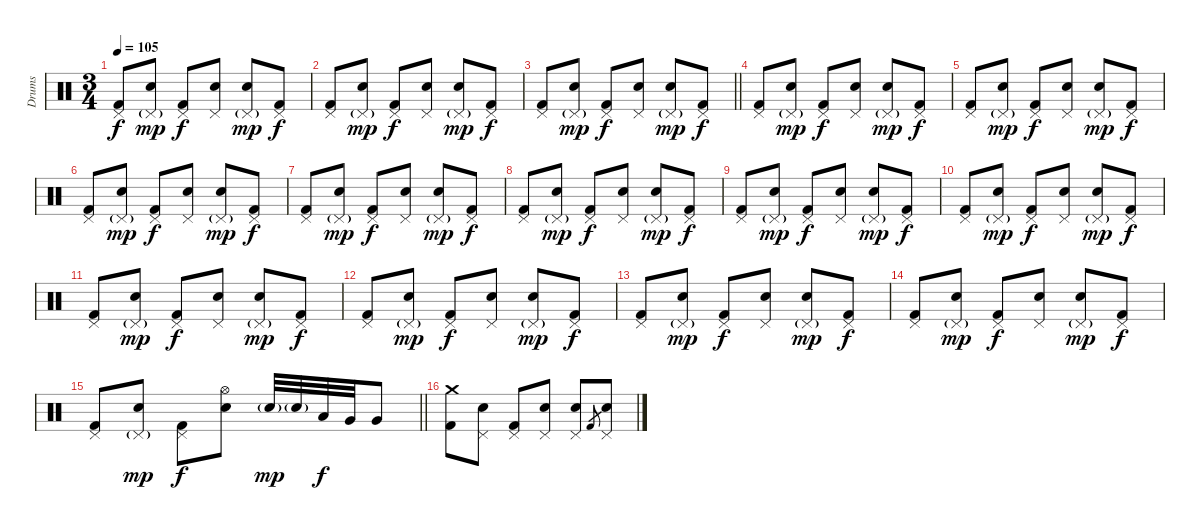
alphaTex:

\track ("Drums" "Drums") {instrument percussion}
\staff {score}
\articulation defaults
\ts (3 4)
\tempo 105
\clef neutral
\ks c
("Pedal Hi-Hat (hit)" "Kick (hit) 2").8{dy f} ("Pedal Hi-Hat (hit)"{g} "Snare (hit)").8{dy mp} ("Pedal Hi-Hat (hit)" "Kick (hit) 2").8{dy f} ("Pedal Hi-Hat (hit)" "Electric Snare (hit)").8 ("Pedal Hi-Hat (hit)"{g} "Snare (hit)").8{dy mp} ("Pedal Hi-Hat (hit)" "Kick (hit) 2").8{dy f} |
("Pedal Hi-Hat (hit)" "Kick (hit) 2").8 ("Pedal Hi-Hat (hit)"{g} "Snare (hit)").8{dy mp} ("Pedal Hi-Hat (hit)" "Kick (hit) 2").8{dy f} ("Pedal Hi-Hat (hit)" "Electric Snare (hit)").8 ("Pedal Hi-Hat (hit)"{g} "Snare (hit)").8{dy mp} ("Pedal Hi-Hat (hit)" "Kick (hit) 2").8{dy f} |
\barLineRight lightlight
("Pedal Hi-Hat (hit)" "Kick (hit) 2").8 ("Pedal Hi-Hat (hit)"{g} "Snare (hit)").8{dy mp} ("Pedal Hi-Hat (hit)" "Kick (hit) 2").8{dy f} ("Pedal Hi-Hat (hit)" "Electric Snare (hit)").8 ("Pedal Hi-Hat (hit)"{g} "Snare (hit)").8{dy mp} ("Pedal Hi-Hat (hit)" "Kick (hit) 2").8{dy f} |
("Pedal Hi-Hat (hit)" "Kick (hit) 2").8 ("Pedal Hi-Hat (hit)"{g} "Snare (hit)").8{dy mp} ("Pedal Hi-Hat (hit)" "Kick (hit) 2").8{dy f} ("Pedal Hi-Hat (hit)" "Electric Snare (hit)").8 ("Pedal Hi-Hat (hit)"{g} "Snare (hit)").8{dy mp} ("Pedal Hi-Hat (hit)" "Kick (hit) 2").8{dy f} |
("Pedal Hi-Hat (hit)" "Kick (hit) 2").8 ("Pedal Hi-Hat (hit)"{g} "Snare (hit)").8{dy mp} ("Pedal Hi-Hat (hit)" "Kick (hit) 2").8{dy f} ("Pedal Hi-Hat (hit)" "Electric Snare (hit)").8 ("Pedal Hi-Hat (hit)"{g} "Snare (hit)").8{dy mp} ("Pedal Hi-Hat (hit)" "Kick (hit) 2").8{dy f} |
("Pedal Hi-Hat (hit)" "Kick (hit) 2").8 ("Pedal Hi-Hat (hit)"{g} "Snare (hit)").8{dy mp} ("Pedal Hi-Hat (hit)" "Kick (hit) 2").8{dy f} ("Pedal Hi-Hat (hit)" "Electric Snare (hit)").8 ("Pedal Hi-Hat (hit)"{g} "Snare (hit)").8{dy mp} ("Pedal Hi-Hat (hit)" "Kick (hit) 2").8{dy f} |
("Pedal Hi-Hat (hit)" "Kick (hit) 2").8 ("Pedal Hi-Hat (hit)"{g} "Snare (hit)").8{dy mp} ("Pedal Hi-Hat (hit)" "Kick (hit) 2").8{dy f} ("Pedal Hi-Hat (hit)" "Electric Snare (hit)").8 ("Pedal Hi-Hat (hit)"{g} "Snare (hit)").8{dy mp} ("Pedal Hi-Hat (hit)" "Kick (hit) 2").8{dy f} |
("Pedal Hi-Hat (hit)" "Kick (hit) 2").8 ("Pedal Hi-Hat (hit)"{g} "Snare (hit)").8{dy mp} ("Pedal Hi-Hat (hit)" "Kick (hit) 2").8{dy f} ("Pedal Hi-Hat (hit)" "Electric Snare (hit)").8 ("Pedal Hi-Hat (hit)"{g} "Snare (hit)").8{dy mp} ("Pedal Hi-Hat (hit)" "Kick (hit) 2").8{dy f} |
("Pedal Hi-Hat (hit)" "Kick (hit) 2").8 ("Pedal Hi-Hat (hit)"{g} "Snare (hit)").8{dy mp} ("Pedal Hi-Hat (hit)" "Kick (hit) 2").8{dy f} ("Pedal Hi-Hat (hit)" "Electric Snare (hit)").8 ("Pedal Hi-Hat (hit)"{g} "Snare (hit)").8{dy mp} ("Pedal Hi-Hat (hit)" "Kick (hit) 2").8{dy f} |
("Pedal Hi-Hat (hit)" "Kick (hit) 2").8 ("Pedal Hi-Hat (hit)"{g} "Snare (hit)").8{dy mp} ("Pedal Hi-Hat (hit)" "Kick (hit) 2").8{dy f} ("Pedal Hi-Hat (hit)" "Electric Snare (hit)").8 ("Pedal Hi-Hat (hit)"{g} "Snare (hit)").8{dy mp} ("Pedal Hi-Hat (hit)" "Kick (hit) 2").8{dy f} |
("Pedal Hi-Hat (hit)" "Kick (hit) 2").8 ("Pedal Hi-Hat (hit)"{g} "Snare (hit)").8{dy mp} ("Pedal Hi-Hat (hit)" "Kick (hit) 2").8{dy f} ("Pedal Hi-Hat (hit)" "Electric Snare (hit)").8 ("Pedal Hi-Hat (hit)"{g} "Snare (hit)").8{dy mp} ("Pedal Hi-Hat (hit)" "Kick (hit) 2").8{dy f} |
("Pedal Hi-Hat (hit)" "Kick (hit) 2").8 ("Pedal Hi-Hat (hit)"{g} "Snare (hit)").8{dy mp} ("Pedal Hi-Hat (hit)" "Kick (hit) 2").8{dy f} ("Pedal Hi-Hat (hit)" "Electric Snare (hit)").8 ("Pedal Hi-Hat (hit)"{g} "Snare (hit)").8{dy mp} ("Pedal Hi-Hat (hit)" "Kick (hit) 2").8{dy f} |
("Pedal Hi-Hat (hit)" "Kick (hit) 2").8 ("Pedal Hi-Hat (hit)"{g} "Snare (hit)").8{dy mp} ("Pedal Hi-Hat (hit)" "Kick (hit) 2").8{dy f} ("Pedal Hi-Hat (hit)" "Electric Snare (hit)").8 ("Pedal Hi-Hat (hit)"{g} "Snare (hit)").8{dy mp} ("Pedal Hi-Hat (hit)" "Kick (hit) 2").8{dy f} |
("Pedal Hi-Hat (hit)" "Kick (hit) 2").8 ("Pedal Hi-Hat (hit)"{g} "Snare (hit)").8{dy mp} ("Pedal Hi-Hat (hit)" "Kick (hit) 2").8{dy f} ("Pedal Hi-Hat (hit)" "Electric Snare (hit)").8 ("Pedal Hi-Hat (hit)"{g} "Snare (hit)").8{dy mp} ("Pedal Hi-Hat (hit)" "Kick (hit) 2").8{dy f} |
\barLineRight lightlight
("Pedal Hi-Hat (hit)" "Kick (hit) 2").8 ("Pedal Hi-Hat (hit)"{g} "Snare (hit)").8{dy mp} ("Pedal Hi-Hat (hit)" "Kick (hit) 2").8{dy f} ("Hi-Hat (open)" "Electric Snare (hit)").8 "Electric Snare (hit)"{g}.32{dy mp} "Electric Snare (hit)"{g}.32 "Low Tom (hit)".32{dy f} "Very Low Tom (hit)".32 "Very Low Tom (hit)".8 |
("Crash medium (hit)" "Kick (hit) 2").8 ("Pedal Hi-Hat (hit)" "Snare (hit)").8 ("Pedal Hi-Hat (hit)" "Kick (hit) 2").8 ("Pedal Hi-Hat (hit)" "Electric Snare (hit)").8 ("Pedal Hi-Hat (hit)" "Snare (hit)").8 "Kick (hit) 2".8{gr} ("Pedal Hi-Hat (hit)" "Electric Snare (hit)").8
